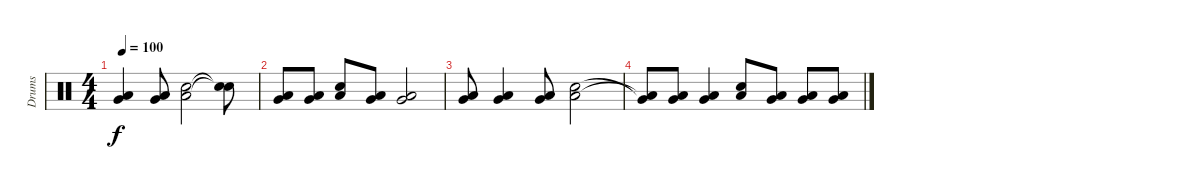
\track ("Drums" "Drums") {instrument percussion}
\staff {score}
\articulation defaults
\ts (4 4)
\tempo 100
\clef neutral
\ks c
("Low Floor Tom (hit)" "Very Low Tom (hit)").4{dy f} ("Low Floor Tom (hit)" "Very Low Tom (hit)").8 ("Low Floor Tom (hit)" "Snare (hit) 2").2 ("Snare (hit)"{t} "Snare (hit)"{t}).8 |
("Low Floor Tom (hit)" "Very Low Tom (hit)").8 ("Low Floor Tom (hit)" "Very Low Tom (hit)").8 ("Low Floor Tom (hit)" "Snare (hit) 2").8 ("Low Floor Tom (hit)" "Very Low Tom (hit)").8 ("Low Floor Tom (hit)" "Very Low Tom (hit)").2 |
("Low Floor Tom (hit)" "Very Low Tom (hit)").8 ("Low Floor Tom (hit)" "Very Low Tom (hit)").4 ("Low Floor Tom (hit)" "Very Low Tom (hit)").8 ("Low Floor Tom (hit)" "Snare (hit) 2").2 |
("Low Floor Tom (hit)"{t} "Very Low Tom (hit)"{t}).8 ("Low Floor Tom (hit)" "Very Low Tom (hit)").8 ("Low Floor Tom (hit)" "Very Low Tom (hit)").4 ("Low Floor Tom (hit)" "Snare (hit) 2").8 ("Low Floor Tom (hit)" "Very Low Tom (hit)").8 ("Low Floor Tom (hit)" "Very Low Tom (hit)").8 ("Low Floor Tom (hit)" "Very Low Tom (hit)").8
